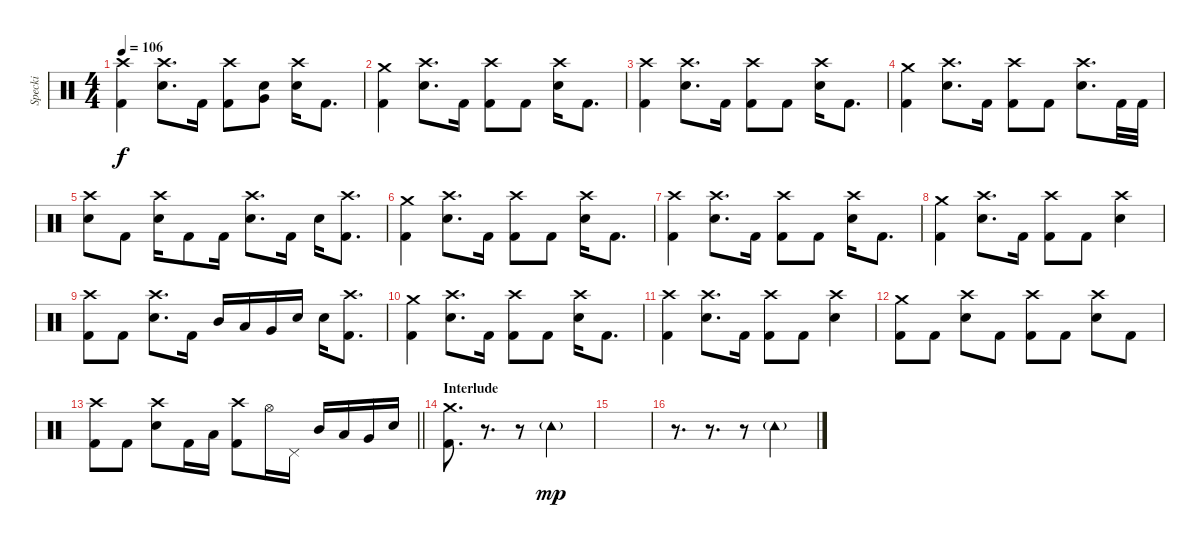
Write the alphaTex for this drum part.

\track ("Specki" "Specki") {instrument percussion}
\staff {score}
\articulation defaults
\ts (4 4)
\tempo 106
\clef neutral
\ks c
("Crash high (hit)" "Kick (hit) 2").4{dy f} ("Crash high (hit)" "Snare (hit) 2").8{d} "Kick (hit) 2".16 ("Crash high (hit)" "Kick (hit) 2").8 ("Very Low Tom (hit)" "Snare (hit) 2").8 ("Crash high (hit)" "Snare (hit) 2").16 "Kick (hit) 2".8{d} |
("Crash medium (hit)" "Kick (hit) 2").4 ("Crash high (hit)" "Snare (hit) 2").8{d} "Kick (hit) 2".16 ("Crash high (hit)" "Kick (hit) 2").8 "Kick (hit) 2".8 ("Crash high (hit)" "Snare (hit) 2").16 "Kick (hit) 2".8{d} |
("Crash high (hit)" "Kick (hit) 2").4 ("Crash high (hit)" "Snare (hit) 2").8{d} "Kick (hit) 2".16 ("Crash high (hit)" "Kick (hit) 2").8 "Kick (hit) 2".8 ("Crash high (hit)" "Snare (hit) 2").16 "Kick (hit) 2".8{d} |
("Crash medium (hit)" "Kick (hit) 2").4 ("Crash high (hit)" "Snare (hit) 2").8{d} "Kick (hit) 2".16 ("Crash high (hit)" "Kick (hit) 2").8 "Kick (hit) 2".8 ("Crash high (hit)" "Snare (hit) 2").8{d} "Kick (hit) 2".32 "Kick (hit) 2".32 |
("Crash high (hit)" "Snare (hit) 2").8 "Kick (hit) 2".8 ("Crash high (hit)" "Snare (hit) 2").16 "Kick (hit) 2".8 "Kick (hit) 2".16 ("Crash high (hit)" "Snare (hit) 2").8{d} "Kick (hit) 2".16 "Snare (hit) 2".16 ("Crash high (hit)" "Kick (hit) 2").8{d} |
("Crash medium (hit)" "Kick (hit) 2").4 ("Crash high (hit)" "Snare (hit) 2").8{d} "Kick (hit) 2".16 ("Crash high (hit)" "Kick (hit) 2").8 "Kick (hit) 2".8 ("Crash high (hit)" "Snare (hit) 2").16 "Kick (hit) 2".8{d} |
("Crash high (hit)" "Kick (hit) 2").4 ("Crash high (hit)" "Snare (hit) 2").8{d} "Kick (hit) 2".16 ("Crash high (hit)" "Kick (hit) 2").8 "Kick (hit) 2".8 ("Crash high (hit)" "Snare (hit) 2").16 "Kick (hit) 2".8{d} |
("Crash medium (hit)" "Kick (hit) 2").4 ("Crash high (hit)" "Snare (hit) 2").8{d} "Kick (hit) 2".16 ("Crash high (hit)" "Kick (hit) 2").8 "Kick (hit) 2".8 ("Crash high (hit)" "Snare (hit) 2").4 |
("Crash high (hit)" "Kick (hit) 2").8 "Kick (hit) 2".8 ("Crash high (hit)" "Snare (hit) 2").8{d} "Kick (hit) 2".16 "Mid Tom (hit)".16 "Low Tom (hit)".16 "Very Low Tom (hit)".16 "Snare (hit) 2".16 "Snare (hit) 2".16 ("Crash high (hit)" "Kick (hit) 2").8{d} |
("Crash medium (hit)" "Kick (hit) 2").4 ("Crash high (hit)" "Snare (hit) 2").8{d} "Kick (hit) 2".16 ("Crash high (hit)" "Kick (hit) 2").8 "Kick (hit) 2".8 ("Crash high (hit)" "Snare (hit) 2").16 "Kick (hit) 2".8{d} |
("Crash high (hit)" "Kick (hit) 2").4 ("Crash high (hit)" "Snare (hit) 2").8{d} "Kick (hit) 2".16 ("Crash high (hit)" "Kick (hit) 2").8 "Kick (hit) 2".8 ("Crash high (hit)" "Snare (hit) 2").4 |
("Crash medium (hit)" "Kick (hit) 2").8 "Kick (hit) 2".8 ("Crash high (hit)" "Snare (hit) 2").8 "Kick (hit) 2".8 ("Crash high (hit)" "Kick (hit) 2").8 "Kick (hit) 2".8 ("Crash high (hit)" "Snare (hit) 2").8 "Kick (hit) 2".8 |
\barLineRight lightlight
("Crash high (hit)" "Kick (hit) 2").8 "Kick (hit) 2".8 ("Crash high (hit)" "Snare (hit) 2").8 "Kick (hit) 2".16 "Low Tom (hit)".16 ("Crash high (hit)" "Kick (hit) 2").8 "Hi-Hat (open)".16 "Pedal Hi-Hat (hit)".16 "Mid Tom (hit)".16 "Low Tom (hit)".16 "Very Low Tom (hit)".16 "Snare (hit) 2".16 |
\section ("" "Interlude")
("Crash medium (hit)" "Kick (hit) 2").8{d} r.8{d} r.8 "Tambourine (hit)"{g}.2{dy mp} |
|
r.8{d} r.8{d} r.8 "Tambourine (hit)"{g}.2
